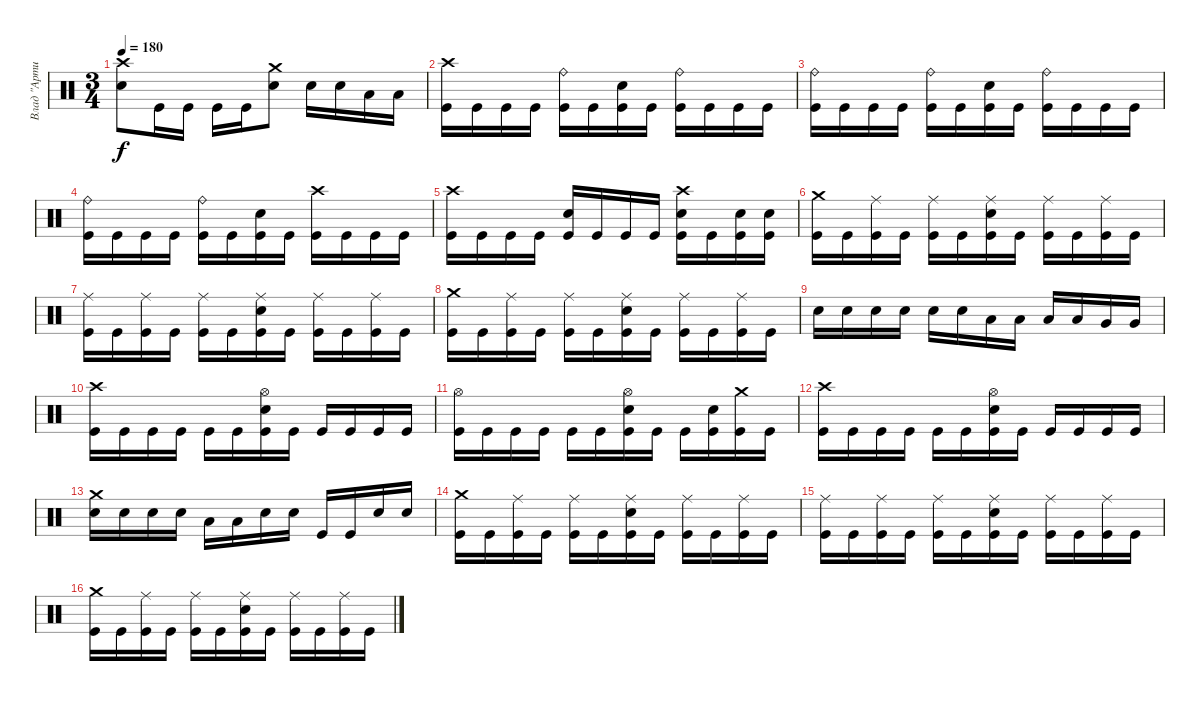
\track ("Влад \"Артист\"" "Влад \"Арти") {instrument percussion}
\staff {score}
\articulation defaults
\ts (3 4)
\tempo 180
\clef neutral
\ks c
("Crash high (hit)" "Snare (hit) 2").8{dy f} "Kick (hit)".16 "Kick (hit)".16 "Kick (hit)".16 "Kick (hit)".16 ("Crash medium (hit)" "Snare (hit) 2").8 "Snare (hit) 2".16 "Snare (hit) 2".16 "Low Tom (hit)".16 "Low Tom (hit)".16 |
("Crash high (hit)" "Kick (hit)").16 "Kick (hit)".16 "Kick (hit)".16 "Kick (hit)".16 ("Ride (bell)" "Kick (hit)").16 "Kick (hit)".16 ("Kick (hit)" "Snare (hit) 2").16 "Kick (hit)".16 ("Ride (bell)" "Kick (hit)").16 "Kick (hit)".16 "Kick (hit)".16 "Kick (hit)".16 |
("Ride (bell)" "Kick (hit)").16 "Kick (hit)".16 "Kick (hit)".16 "Kick (hit)".16 ("Ride (bell)" "Kick (hit)").16 "Kick (hit)".16 ("Kick (hit)" "Snare (hit) 2").16 "Kick (hit)".16 ("Ride (bell)" "Kick (hit)").16 "Kick (hit)".16 "Kick (hit)".16 "Kick (hit)".16 |
("Ride (bell)" "Kick (hit)").16 "Kick (hit)".16 "Kick (hit)".16 "Kick (hit)".16 ("Ride (bell)" "Kick (hit)").16 "Kick (hit)".16 ("Snare (hit) 2" "Kick (hit)").16 "Kick (hit)".16 ("Crash high (hit)" "Kick (hit)").16 "Kick (hit)".16 "Kick (hit)".16 "Kick (hit)".16 |
("Crash high (hit)" "Kick (hit)").16 "Kick (hit)".16 "Kick (hit)".16 "Kick (hit)".16 ("Snare (hit) 2" "Kick (hit)").16 "Kick (hit)".16 "Kick (hit)".16 "Kick (hit)".16 ("Snare (hit) 2" "Kick (hit)" "Crash high (hit)").16 "Kick (hit)".16 ("Kick (hit)" "Snare (hit) 2").16 ("Kick (hit)" "Snare (hit) 2").16 |
("Crash medium (hit)" "Kick (hit)").16 "Kick (hit)".16 ("Ride (middle)" "Kick (hit)").16 "Kick (hit)".16 ("Ride (middle)" "Kick (hit)").16 "Kick (hit)".16 ("Ride (middle)" "Snare (hit) 2" "Kick (hit)").16 "Kick (hit)".16 ("Ride (middle)" "Kick (hit)").16 "Kick (hit)".16 ("Ride (middle)" "Kick (hit)").16 "Kick (hit)".16 |
("Ride (middle)" "Kick (hit)").16 "Kick (hit)".16 ("Ride (middle)" "Kick (hit)").16 "Kick (hit)".16 ("Ride (middle)" "Kick (hit)").16 "Kick (hit)".16 ("Snare (hit) 2" "Ride (middle)" "Kick (hit)").16 "Kick (hit)".16 ("Ride (middle)" "Kick (hit)").16 "Kick (hit)".16 ("Ride (middle)" "Kick (hit)").16 "Kick (hit)".16 |
("Crash medium (hit)" "Kick (hit)").16 "Kick (hit)".16 ("Ride (middle)" "Kick (hit)").16 "Kick (hit)".16 ("Ride (middle)" "Kick (hit)").16 "Kick (hit)".16 ("Ride (middle)" "Snare (hit) 2" "Kick (hit)").16 "Kick (hit)".16 ("Ride (middle)" "Kick (hit)").16 "Kick (hit)".16 ("Ride (middle)" "Kick (hit)").16 "Kick (hit)".16 |
"Snare (hit) 2".16 "Snare (hit) 2".16 "Snare (hit) 2".16 "Snare (hit) 2".16 "Snare (hit) 2".16 "Snare (hit) 2".16 "Low Tom (hit)".16 "Low Tom (hit)".16 "Low Tom (hit)".16 "Low Tom (hit)".16 "Very Low Tom (hit)".16 "Very Low Tom (hit)".16 |
("Crash high (hit)" "Kick (hit)").16 "Kick (hit)".16 "Kick (hit)".16 "Kick (hit)".16 "Kick (hit)".16 "Kick (hit)".16 ("Hi-Hat (open)" "Snare (hit) 2" "Kick (hit)").16 "Kick (hit)".16 "Kick (hit)".16 "Kick (hit)".16 "Kick (hit)".16 "Kick (hit)".16 |
("Hi-Hat (open)" "Kick (hit)").16 "Kick (hit)".16 "Kick (hit)".16 "Kick (hit)".16 "Kick (hit)".16 "Kick (hit)".16 ("Snare (hit) 2" "Hi-Hat (open)" "Kick (hit)").16 "Kick (hit)".16 "Kick (hit)".16 ("Snare (hit) 2" "Kick (hit)").16 ("Crash medium (hit)" "Kick (hit)").16 "Kick (hit)".16 |
("Crash high (hit)" "Kick (hit)").16 "Kick (hit)".16 "Kick (hit)".16 "Kick (hit)".16 "Kick (hit)".16 "Kick (hit)".16 ("Hi-Hat (open)" "Snare (hit) 2" "Kick (hit)").16 "Kick (hit)".16 "Kick (hit)".16 "Kick (hit)".16 "Kick (hit)".16 "Kick (hit)".16 |
("Snare (hit) 2" "Crash medium (hit)").16 "Snare (hit) 2".16 "Snare (hit) 2".16 "Snare (hit) 2".16 "Low Tom (hit)".16 "Low Tom (hit)".16 "Snare (hit) 2".16 "Snare (hit) 2".16 "Kick (hit)".16 "Kick (hit)".16 "Snare (hit) 2".16 "Snare (hit) 2".16 |
("Crash medium (hit)" "Kick (hit)").16 "Kick (hit)".16 ("Ride (middle)" "Kick (hit)").16 "Kick (hit)".16 ("Ride (middle)" "Kick (hit)").16 "Kick (hit)".16 ("Ride (middle)" "Snare (hit) 2" "Kick (hit)").16 "Kick (hit)".16 ("Ride (middle)" "Kick (hit)").16 "Kick (hit)".16 ("Ride (middle)" "Kick (hit)").16 "Kick (hit)".16 |
("Ride (middle)" "Kick (hit)").16 "Kick (hit)".16 ("Ride (middle)" "Kick (hit)").16 "Kick (hit)".16 ("Ride (middle)" "Kick (hit)").16 "Kick (hit)".16 ("Snare (hit) 2" "Ride (middle)" "Kick (hit)").16 "Kick (hit)".16 ("Ride (middle)" "Kick (hit)").16 "Kick (hit)".16 ("Ride (middle)" "Kick (hit)").16 "Kick (hit)".16 |
("Crash medium (hit)" "Kick (hit)").16 "Kick (hit)".16 ("Ride (middle)" "Kick (hit)").16 "Kick (hit)".16 ("Ride (middle)" "Kick (hit)").16 "Kick (hit)".16 ("Ride (middle)" "Snare (hit) 2" "Kick (hit)").16 "Kick (hit)".16 ("Ride (middle)" "Kick (hit)").16 "Kick (hit)".16 ("Ride (middle)" "Kick (hit)").16 "Kick (hit)".16
